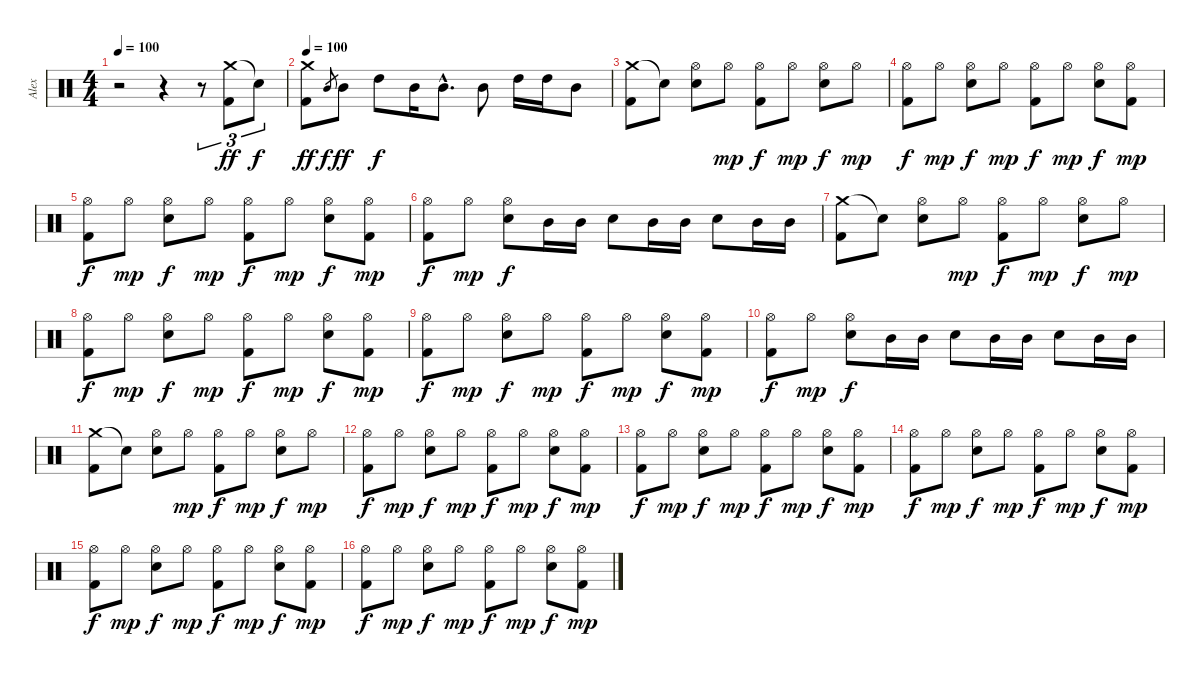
\track ("Alex" "Alex") {instrument percussion}
\staff {score}
\articulation defaults
\ts (4 4)
\tempo 100
\tempo 130
\tempo 100
\clef neutral
\ks c
r.2{dy ff} r.4 r.8{tu (3 2)} ("Crash medium (hit)" "Kick (hit) 2").8{tu (3 2)} "Snare (hit)"{t}.8{tu (3 2) dy f} |
\tempo 100
("Crash medium (hit)" "Kick (hit) 2").8{dy ff} "Mid Tom (hit)".8{gr dy f} "Mid Tom (hit)".8{dy ff} "High Tom (hit)".8{dy f} "Mid Tom (hit)".16 "Mid Tom (hit)"{hac}.8{d} "Mid Tom (hit)".8 "High Tom (hit)".16 "High Tom (hit)".16 "Mid Tom (hit)".8 |
("Crash medium (hit)" "Kick (hit) 2").8 "Snare (hit)"{t}.8 ("Hi-Hat (open)" "Electric Snare (hit)").8 "Hi-Hat (open)".8{dy mp} ("Hi-Hat (open)" "Kick (hit) 2").8{dy f} "Hi-Hat (open)".8{dy mp} ("Hi-Hat (open)" "Electric Snare (hit)").8{dy f} "Hi-Hat (open)".8{dy mp} |
("Hi-Hat (open)" "Kick (hit) 2").8{dy f} "Hi-Hat (open)".8{dy mp} ("Hi-Hat (open)" "Electric Snare (hit)").8{dy f} "Hi-Hat (open)".8{dy mp} ("Hi-Hat (open)" "Kick (hit) 2").8{dy f} "Hi-Hat (open)".8{dy mp} ("Hi-Hat (open)" "Electric Snare (hit)").8{dy f} ("Hi-Hat (open)" "Kick (hit) 2").8{dy mp} |
("Hi-Hat (open)" "Kick (hit) 2").8{dy f} "Hi-Hat (open)".8{dy mp} ("Hi-Hat (open)" "Electric Snare (hit)").8{dy f} "Hi-Hat (open)".8{dy mp} ("Hi-Hat (open)" "Kick (hit) 2").8{dy f} "Hi-Hat (open)".8{dy mp} ("Hi-Hat (open)" "Electric Snare (hit)").8{dy f} ("Hi-Hat (open)" "Kick (hit) 2").8{dy mp} |
("Hi-Hat (open)" "Kick (hit) 2").8{dy f} "Hi-Hat (open)".8{dy mp} ("Hi-Hat (open)" "Electric Snare (hit)").8{dy f} "Mid Tom (hit)".16 "Mid Tom (hit)".16 "Electric Snare (hit)".8 "Mid Tom (hit)".16 "Mid Tom (hit)".16 "Electric Snare (hit)".8 "Mid Tom (hit)".16 "Mid Tom (hit)".16 |
("Crash medium (hit)" "Kick (hit) 2").8 "Snare (hit)"{t}.8 ("Hi-Hat (open)" "Electric Snare (hit)").8 "Hi-Hat (open)".8{dy mp} ("Hi-Hat (open)" "Kick (hit) 2").8{dy f} "Hi-Hat (open)".8{dy mp} ("Hi-Hat (open)" "Electric Snare (hit)").8{dy f} "Hi-Hat (open)".8{dy mp} |
("Hi-Hat (open)" "Kick (hit) 2").8{dy f} "Hi-Hat (open)".8{dy mp} ("Hi-Hat (open)" "Electric Snare (hit)").8{dy f} "Hi-Hat (open)".8{dy mp} ("Hi-Hat (open)" "Kick (hit) 2").8{dy f} "Hi-Hat (open)".8{dy mp} ("Hi-Hat (open)" "Electric Snare (hit)").8{dy f} ("Hi-Hat (open)" "Kick (hit) 2").8{dy mp} |
("Hi-Hat (open)" "Kick (hit) 2").8{dy f} "Hi-Hat (open)".8{dy mp} ("Hi-Hat (open)" "Electric Snare (hit)").8{dy f} "Hi-Hat (open)".8{dy mp} ("Hi-Hat (open)" "Kick (hit) 2").8{dy f} "Hi-Hat (open)".8{dy mp} ("Hi-Hat (open)" "Electric Snare (hit)").8{dy f} ("Hi-Hat (open)" "Kick (hit) 2").8{dy mp} |
("Hi-Hat (open)" "Kick (hit) 2").8{dy f} "Hi-Hat (open)".8{dy mp} ("Hi-Hat (open)" "Electric Snare (hit)").8{dy f} "Mid Tom (hit)".16 "Mid Tom (hit)".16 "Electric Snare (hit)".8 "Mid Tom (hit)".16 "Mid Tom (hit)".16 "Electric Snare (hit)".8 "Mid Tom (hit)".16 "Mid Tom (hit)".16 |
("Crash medium (hit)" "Kick (hit) 2").8 "Snare (hit)"{t}.8 ("Hi-Hat (open)" "Electric Snare (hit)").8 "Hi-Hat (open)".8{dy mp} ("Hi-Hat (open)" "Kick (hit) 2").8{dy f} "Hi-Hat (open)".8{dy mp} ("Hi-Hat (open)" "Electric Snare (hit)").8{dy f} "Hi-Hat (open)".8{dy mp} |
("Hi-Hat (open)" "Kick (hit) 2").8{dy f} "Hi-Hat (open)".8{dy mp} ("Hi-Hat (open)" "Electric Snare (hit)").8{dy f} "Hi-Hat (open)".8{dy mp} ("Hi-Hat (open)" "Kick (hit) 2").8{dy f} "Hi-Hat (open)".8{dy mp} ("Hi-Hat (open)" "Electric Snare (hit)").8{dy f} ("Hi-Hat (open)" "Kick (hit) 2").8{dy mp} |
("Hi-Hat (open)" "Kick (hit) 2").8{dy f} "Hi-Hat (open)".8{dy mp} ("Hi-Hat (open)" "Electric Snare (hit)").8{dy f} "Hi-Hat (open)".8{dy mp} ("Hi-Hat (open)" "Kick (hit) 2").8{dy f} "Hi-Hat (open)".8{dy mp} ("Hi-Hat (open)" "Electric Snare (hit)").8{dy f} ("Hi-Hat (open)" "Kick (hit) 2").8{dy mp} |
("Hi-Hat (open)" "Kick (hit) 2").8{dy f} "Hi-Hat (open)".8{dy mp} ("Hi-Hat (open)" "Electric Snare (hit)").8{dy f} "Hi-Hat (open)".8{dy mp} ("Hi-Hat (open)" "Kick (hit) 2").8{dy f} "Hi-Hat (open)".8{dy mp} ("Hi-Hat (open)" "Electric Snare (hit)").8{dy f} ("Hi-Hat (open)" "Kick (hit) 2").8{dy mp} |
("Hi-Hat (open)" "Kick (hit) 2").8{dy f} "Hi-Hat (open)".8{dy mp} ("Hi-Hat (open)" "Electric Snare (hit)").8{dy f} "Hi-Hat (open)".8{dy mp} ("Hi-Hat (open)" "Kick (hit) 2").8{dy f} "Hi-Hat (open)".8{dy mp} ("Hi-Hat (open)" "Electric Snare (hit)").8{dy f} ("Hi-Hat (open)" "Kick (hit) 2").8{dy mp} |
("Hi-Hat (open)" "Kick (hit) 2").8{dy f} "Hi-Hat (open)".8{dy mp} ("Hi-Hat (open)" "Electric Snare (hit)").8{dy f} "Hi-Hat (open)".8{dy mp} ("Hi-Hat (open)" "Kick (hit) 2").8{dy f} "Hi-Hat (open)".8{dy mp} ("Hi-Hat (open)" "Electric Snare (hit)").8{dy f} ("Hi-Hat (open)" "Kick (hit) 2").8{dy mp}
